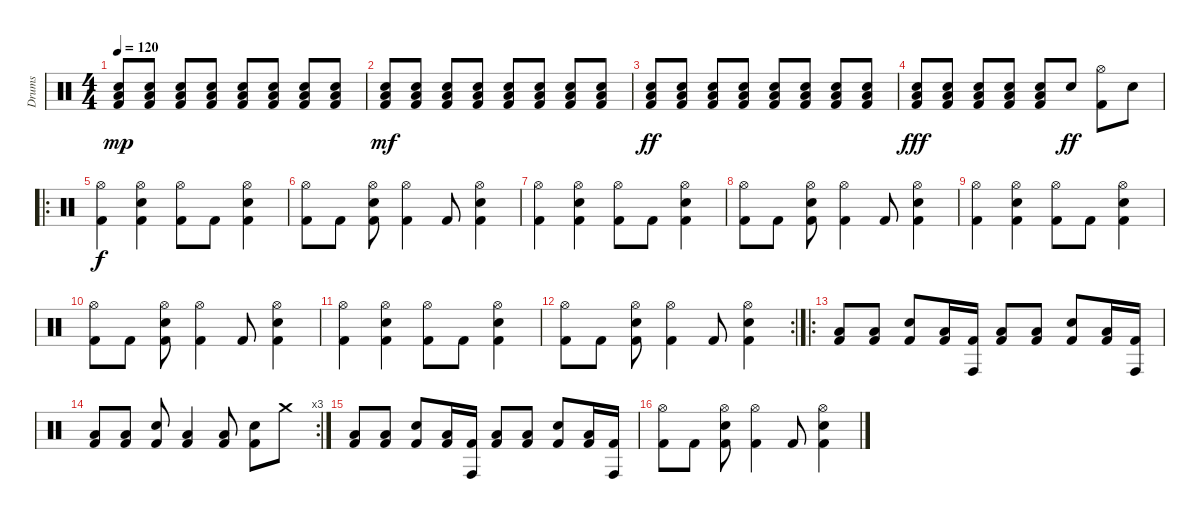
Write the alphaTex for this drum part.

\track ("Drums" "Drums") {instrument percussion}
\staff {score}
\articulation defaults
\ts (4 4)
\tempo 120
\clef neutral
\ks c
("Electric Snare (hit)" "Low Floor Tom (hit)" "Kick (hit) 2").8{dy mp} ("Electric Snare (hit)" "Low Floor Tom (hit)" "Kick (hit) 2").8 ("Electric Snare (hit)" "Low Floor Tom (hit)" "Kick (hit) 2").8 ("Electric Snare (hit)" "Low Floor Tom (hit)" "Kick (hit) 2").8 ("Electric Snare (hit)" "Low Floor Tom (hit)" "Kick (hit) 2").8 ("Electric Snare (hit)" "Low Floor Tom (hit)" "Kick (hit) 2").8 ("Electric Snare (hit)" "Low Floor Tom (hit)" "Kick (hit) 2").8 ("Electric Snare (hit)" "Low Floor Tom (hit)" "Kick (hit) 2").8 |
("Electric Snare (hit)" "Low Floor Tom (hit)" "Kick (hit) 2").8{dy mf} ("Electric Snare (hit)" "Low Floor Tom (hit)" "Kick (hit) 2").8 ("Electric Snare (hit)" "Low Floor Tom (hit)" "Kick (hit) 2").8 ("Electric Snare (hit)" "Low Floor Tom (hit)" "Kick (hit) 2").8 ("Electric Snare (hit)" "Low Floor Tom (hit)" "Kick (hit) 2").8 ("Electric Snare (hit)" "Low Floor Tom (hit)" "Kick (hit) 2").8 ("Electric Snare (hit)" "Low Floor Tom (hit)" "Kick (hit) 2").8 ("Electric Snare (hit)" "Low Floor Tom (hit)" "Kick (hit) 2").8 |
("Electric Snare (hit)" "Low Floor Tom (hit)" "Kick (hit) 2").8{dy ff} ("Electric Snare (hit)" "Low Floor Tom (hit)" "Kick (hit) 2").8 ("Electric Snare (hit)" "Low Floor Tom (hit)" "Kick (hit) 2").8 ("Electric Snare (hit)" "Low Floor Tom (hit)" "Kick (hit) 2").8 ("Electric Snare (hit)" "Low Floor Tom (hit)" "Kick (hit) 2").8 ("Electric Snare (hit)" "Low Floor Tom (hit)" "Kick (hit) 2").8 ("Electric Snare (hit)" "Low Floor Tom (hit)" "Kick (hit) 2").8 ("Electric Snare (hit)" "Low Floor Tom (hit)" "Kick (hit) 2").8 |
("Electric Snare (hit)" "Low Floor Tom (hit)" "Kick (hit) 2").8{dy fff} ("Electric Snare (hit)" "Low Floor Tom (hit)" "Kick (hit) 2").8 ("Electric Snare (hit)" "Low Floor Tom (hit)" "Kick (hit) 2").8 ("Electric Snare (hit)" "Low Floor Tom (hit)" "Kick (hit) 2").8 ("Electric Snare (hit)" "Low Floor Tom (hit)" "Kick (hit) 2").8 "Electric Snare (hit)".8{dy ff} ("Hi-Hat (open)" "Kick (hit) 2").8 "Electric Snare (hit)".8 |
\ro
("Hi-Hat (open)" "Kick (hit) 2").4{dy f} ("Hi-Hat (open)" "Electric Snare (hit)" "Kick (hit) 2").4 ("Hi-Hat (open)" "Kick (hit) 2").8 "Kick (hit) 2".8 ("Hi-Hat (open)" "Electric Snare (hit)" "Kick (hit) 2").4 |
("Hi-Hat (open)" "Kick (hit) 2").8 "Kick (hit) 2".8 ("Hi-Hat (open)" "Electric Snare (hit)" "Kick (hit) 2").8 ("Hi-Hat (open)" "Kick (hit) 2").4 "Kick (hit) 2".8 ("Hi-Hat (open)" "Electric Snare (hit)" "Kick (hit) 2").4 |
("Hi-Hat (open)" "Kick (hit) 2").4 ("Hi-Hat (open)" "Electric Snare (hit)" "Kick (hit) 2").4 ("Hi-Hat (open)" "Kick (hit) 2").8 "Kick (hit) 2".8 ("Hi-Hat (open)" "Electric Snare (hit)" "Kick (hit) 2").4 |
("Hi-Hat (open)" "Kick (hit) 2").8 "Kick (hit) 2".8 ("Hi-Hat (open)" "Electric Snare (hit)" "Kick (hit) 2").8 ("Hi-Hat (open)" "Kick (hit) 2").4 "Kick (hit) 2".8 ("Hi-Hat (open)" "Electric Snare (hit)" "Kick (hit) 2").4 |
("Hi-Hat (open)" "Kick (hit) 2").4 ("Hi-Hat (open)" "Electric Snare (hit)" "Kick (hit) 2").4 ("Hi-Hat (open)" "Kick (hit) 2").8 "Kick (hit) 2".8 ("Hi-Hat (open)" "Electric Snare (hit)" "Kick (hit) 2").4 |
("Hi-Hat (open)" "Kick (hit) 2").8 "Kick (hit) 2".8 ("Hi-Hat (open)" "Electric Snare (hit)" "Kick (hit) 2").8 ("Hi-Hat (open)" "Kick (hit) 2").4 "Kick (hit) 2".8 ("Hi-Hat (open)" "Electric Snare (hit)" "Kick (hit) 2").4 |
("Hi-Hat (open)" "Kick (hit) 2").4 ("Hi-Hat (open)" "Electric Snare (hit)" "Kick (hit) 2").4 ("Hi-Hat (open)" "Kick (hit) 2").8 "Kick (hit) 2".8 ("Hi-Hat (open)" "Electric Snare (hit)" "Kick (hit) 2").4 |
\rc 2
("Hi-Hat (open)" "Kick (hit) 2").8 "Kick (hit) 2".8 ("Hi-Hat (open)" "Electric Snare (hit)" "Kick (hit) 2").8 ("Hi-Hat (open)" "Kick (hit) 2").4 "Kick (hit) 2".8 ("Hi-Hat (open)" "Electric Snare (hit)" "Kick (hit) 2").4 |
\ro
("Low Floor Tom (hit)" "Kick (hit) 2").8 ("Low Floor Tom (hit)" "Kick (hit) 2").8 ("Electric Snare (hit)" "Kick (hit) 2").8 ("Low Floor Tom (hit)" "Kick (hit) 2").16 ("Conga high (hit)" "Kick (hit) 2").16 ("Low Floor Tom (hit)" "Kick (hit) 2").8 ("Low Floor Tom (hit)" "Kick (hit) 2").8 ("Electric Snare (hit)" "Kick (hit) 2").8 ("Low Floor Tom (hit)" "Kick (hit) 2").16 ("Conga high (hit)" "Kick (hit) 2").16 |
\rc 3
("Low Floor Tom (hit)" "Kick (hit) 2").8 ("Low Floor Tom (hit)" "Kick (hit) 2").8 ("Electric Snare (hit)" "Kick (hit) 2").8 ("Low Floor Tom (hit)" "Kick (hit) 2").4 ("Low Floor Tom (hit)" "Kick (hit) 2").8 ("Electric Snare (hit)" "Kick (hit) 2").8 "Crash medium (hit)".8 |
("Low Floor Tom (hit)" "Kick (hit) 2").8 ("Low Floor Tom (hit)" "Kick (hit) 2").8 ("Electric Snare (hit)" "Kick (hit) 2").8 ("Low Floor Tom (hit)" "Kick (hit) 2").16 ("Conga high (hit)" "Kick (hit) 2").16 ("Low Floor Tom (hit)" "Kick (hit) 2").8 ("Low Floor Tom (hit)" "Kick (hit) 2").8 ("Electric Snare (hit)" "Kick (hit) 2").8 ("Low Floor Tom (hit)" "Kick (hit) 2").16 ("Conga high (hit)" "Kick (hit) 2").16 |
("Hi-Hat (open)" "Kick (hit) 2").8 "Kick (hit) 2".8 ("Hi-Hat (open)" "Electric Snare (hit)" "Kick (hit) 2").8 ("Hi-Hat (open)" "Kick (hit) 2").4 "Kick (hit) 2".8 ("Hi-Hat (open)" "Electric Snare (hit)" "Kick (hit) 2").4
